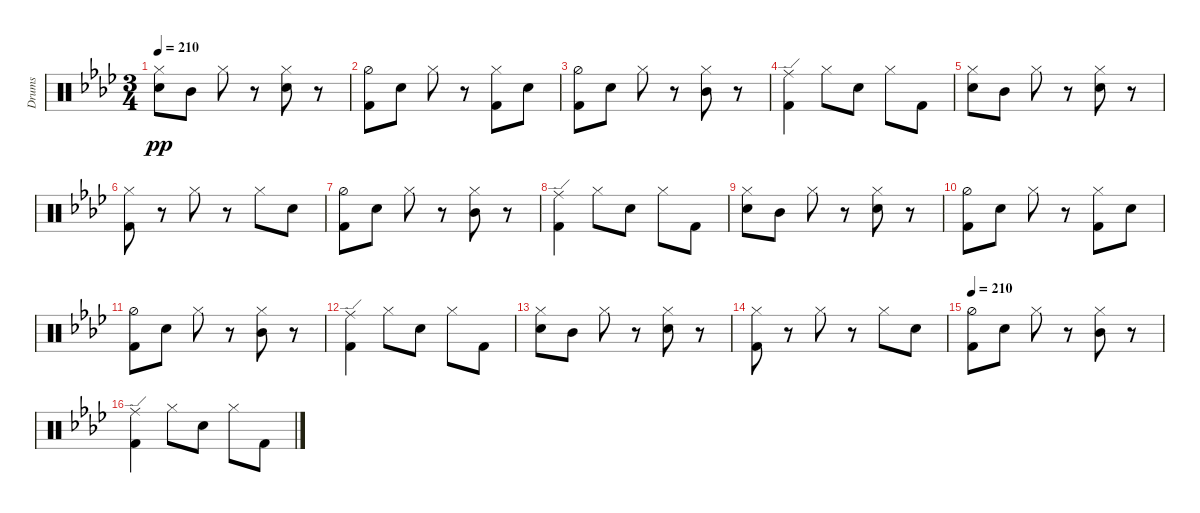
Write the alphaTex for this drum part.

\defaultSystemsLayout 4
\bracketExtendMode nobrackets
\otherSystemsTrackNameOrientation horizontal
\track ("Drumkit" "Drums") {instrument percussion}
\staff {score}
\articulation defaults
\ts (3 4)
\tempo 210
\clef neutral
\ks ab
("Hi-Hat (closed)"{acc forcenatural} "Snare (hit) 2"{acc forcenatural}).8{dy pp} "Mid Tom (hit)"{acc forcenatural}.8 "Hi-Hat (closed)"{acc forcenatural}.8 r.8 ("Hi-Hat (closed)"{acc forcenatural} "Snare (hit) 2"{acc forcenatural}).8 r.8 |
("Hi-Hat (half)"{acc forcenatural} "Kick (hit) 2"{acc forcenatural}).8 "Snare (hit) 2"{acc forcenatural}.8 "Hi-Hat (closed)"{acc forcenatural}.8 r.8 ("Hi-Hat (closed)"{acc forcenatural} "Kick (hit) 2"{acc forcenatural}).8 "Snare (hit) 2"{acc forcenatural}.8 |
("Hi-Hat (half)"{acc forcenatural} "Kick (hit) 2"{acc forcenatural}).8 "Snare (hit) 2"{acc forcenatural}.8 "Hi-Hat (closed)"{acc forcenatural}.8 r.8 ("Mid Tom (hit)"{acc forcenatural} "Hi-Hat (closed)"{acc forcenatural}).8 r.8 |
("Ride (edge)"{acc forcenatural} "Kick (hit) 2"{acc forcenatural}).4 "Hi-Hat (closed)"{acc forcenatural}.8 "Snare (hit) 2"{acc forcenatural}.8 "Hi-Hat (closed)"{acc forcenatural}.8 "Kick (hit) 2"{acc forcenatural}.8 |
("Hi-Hat (closed)"{acc forcenatural} "Snare (hit) 2"{acc forcenatural}).8 "Mid Tom (hit)"{acc forcenatural}.8 "Hi-Hat (closed)"{acc forcenatural}.8 r.8 ("Hi-Hat (closed)"{acc forcenatural} "Snare (hit) 2"{acc forcenatural}).8 r.8 |
("Kick (hit) 2"{acc forcenatural} "Hi-Hat (closed)"{acc forcenatural}).8 r.8 "Hi-Hat (closed)"{acc forcenatural}.8 r.8 "Hi-Hat (closed)"{acc forcenatural}.8 "Snare (hit) 2"{acc forcenatural}.8 |
("Hi-Hat (half)"{acc forcenatural} "Kick (hit) 2"{acc forcenatural}).8 "Snare (hit) 2"{acc forcenatural}.8 "Hi-Hat (closed)"{acc forcenatural}.8 r.8 ("Mid Tom (hit)"{acc forcenatural} "Hi-Hat (closed)"{acc forcenatural}).8 r.8 |
("Ride (edge)"{acc forcenatural} "Kick (hit) 2"{acc forcenatural}).4 "Hi-Hat (closed)"{acc forcenatural}.8 "Snare (hit) 2"{acc forcenatural}.8 "Hi-Hat (closed)"{acc forcenatural}.8 "Kick (hit) 2"{acc forcenatural}.8 |
("Hi-Hat (closed)"{acc forcenatural} "Snare (hit) 2"{acc forcenatural}).8 "Mid Tom (hit)"{acc forcenatural}.8 "Hi-Hat (closed)"{acc forcenatural}.8 r.8 ("Hi-Hat (closed)"{acc forcenatural} "Snare (hit) 2"{acc forcenatural}).8 r.8 |
("Hi-Hat (half)"{acc forcenatural} "Kick (hit) 2"{acc forcenatural}).8 "Snare (hit) 2"{acc forcenatural}.8 "Hi-Hat (closed)"{acc forcenatural}.8 r.8 ("Hi-Hat (closed)"{acc forcenatural} "Kick (hit) 2"{acc forcenatural}).8 "Snare (hit) 2"{acc forcenatural}.8 |
("Hi-Hat (half)"{acc forcenatural} "Kick (hit) 2"{acc forcenatural}).8 "Snare (hit) 2"{acc forcenatural}.8 "Hi-Hat (closed)"{acc forcenatural}.8 r.8 ("Mid Tom (hit)"{acc forcenatural} "Hi-Hat (closed)"{acc forcenatural}).8 r.8 |
("Ride (edge)"{acc forcenatural} "Kick (hit) 2"{acc forcenatural}).4 "Hi-Hat (closed)"{acc forcenatural}.8 "Snare (hit) 2"{acc forcenatural}.8 "Hi-Hat (closed)"{acc forcenatural}.8 "Kick (hit) 2"{acc forcenatural}.8 |
("Hi-Hat (closed)"{acc forcenatural} "Snare (hit) 2"{acc forcenatural}).8 "Mid Tom (hit)"{acc forcenatural}.8 "Hi-Hat (closed)"{acc forcenatural}.8 r.8 ("Hi-Hat (closed)"{acc forcenatural} "Snare (hit) 2"{acc forcenatural}).8 r.8 |
("Kick (hit) 2"{acc forcenatural} "Hi-Hat (closed)"{acc forcenatural}).8 r.8 "Hi-Hat (closed)"{acc forcenatural}.8 r.8 "Hi-Hat (closed)"{acc forcenatural}.8 "Snare (hit) 2"{acc forcenatural}.8 |
\tempo 210
("Hi-Hat (half)"{acc forcenatural} "Kick (hit) 2"{acc forcenatural}).8 "Snare (hit) 2"{acc forcenatural}.8 "Hi-Hat (closed)"{acc forcenatural}.8 r.8 ("Mid Tom (hit)"{acc forcenatural} "Hi-Hat (closed)"{acc forcenatural}).8 r.8 |
("Ride (edge)"{acc forcenatural} "Kick (hit) 2"{acc forcenatural}).4 "Hi-Hat (closed)"{acc forcenatural}.8 "Snare (hit) 2"{acc forcenatural}.8 "Hi-Hat (closed)"{acc forcenatural}.8 "Kick (hit) 2"{acc forcenatural}.8
